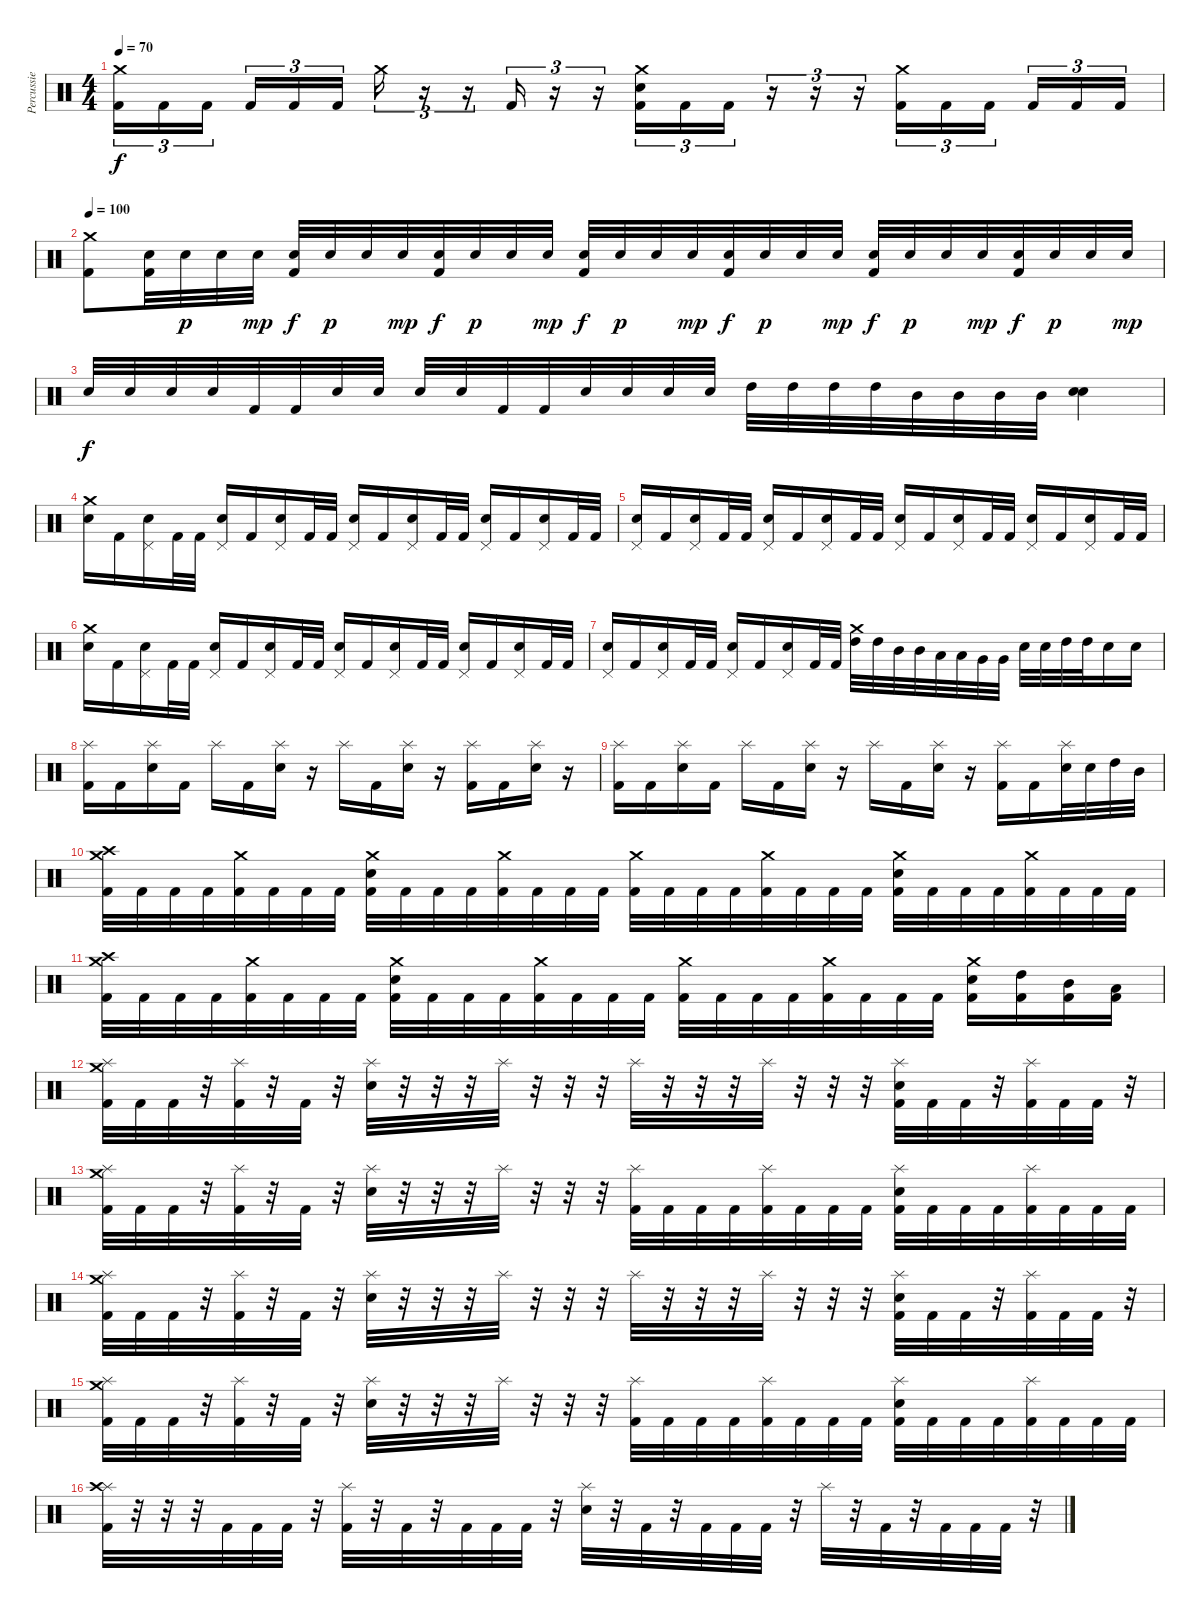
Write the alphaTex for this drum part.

\track ("Percussie" "Percussie") {instrument percussion}
\staff {score}
\articulation defaults
\ts (4 4)
\tempo 70
\clef neutral
\ks c
("Crash medium (hit)" "Kick (hit) 2").16{tu (3 2) dy f} "Kick (hit) 2".16{tu (3 2)} "Kick (hit) 2".16{tu (3 2) beam splitsecondary} "Kick (hit) 2".16{tu (3 2)} "Kick (hit) 2".16{tu (3 2)} "Kick (hit) 2".16{tu (3 2)} "Crash medium (hit)".16{tu (3 2)} r.16{tu (3 2)} r.16{tu (3 2)} "Kick (hit) 2".16{tu (3 2)} r.16{tu (3 2)} r.16{tu (3 2)} ("Crash medium (hit)" "Electric Snare (hit)" "Kick (hit) 2").16{tu (3 2)} "Kick (hit) 2".16{tu (3 2)} "Kick (hit) 2".16{tu (3 2)} r.16{tu (3 2)} r.16{tu (3 2)} r.16{tu (3 2)} ("Crash medium (hit)" "Kick (hit) 2").16{tu (3 2)} "Kick (hit) 2".16{tu (3 2)} "Kick (hit) 2".16{tu (3 2) beam splitsecondary} "Kick (hit) 2".16{tu (3 2)} "Kick (hit) 2".16{tu (3 2)} "Kick (hit) 2".16{tu (3 2)} |
\tempo 100
("Crash medium (hit)" "Kick (hit) 2").8 ("Electric Snare (hit)" "Kick (hit) 2").32 "Electric Snare (hit)".32{dy p} "Electric Snare (hit)".32 "Electric Snare (hit)".32{dy mp} ("Electric Snare (hit)" "Kick (hit) 2").32{dy f} "Electric Snare (hit)".32{dy p} "Electric Snare (hit)".32 "Electric Snare (hit)".32{dy mp} ("Electric Snare (hit)" "Kick (hit) 2").32{dy f} "Electric Snare (hit)".32{dy p} "Electric Snare (hit)".32 "Electric Snare (hit)".32{dy mp} ("Electric Snare (hit)" "Kick (hit) 2").32{dy f} "Electric Snare (hit)".32{dy p} "Electric Snare (hit)".32 "Electric Snare (hit)".32{dy mp} ("Electric Snare (hit)" "Kick (hit) 2").32{dy f} "Electric Snare (hit)".32{dy p} "Electric Snare (hit)".32 "Electric Snare (hit)".32{dy mp} ("Electric Snare (hit)" "Kick (hit) 2").32{dy f} "Electric Snare (hit)".32{dy p} "Electric Snare (hit)".32 "Electric Snare (hit)".32{dy mp} ("Electric Snare (hit)" "Kick (hit) 2").32{dy f} "Electric Snare (hit)".32{dy p} "Electric Snare (hit)".32 "Electric Snare (hit)".32{dy mp} |
"Electric Snare (hit)".32{dy f} "Electric Snare (hit)".32 "Electric Snare (hit)".32 "Electric Snare (hit)".32 "Kick (hit) 2".32 "Kick (hit) 2".32 "Electric Snare (hit)".32 "Electric Snare (hit)".32 "Electric Snare (hit)".32 "Electric Snare (hit)".32 "Kick (hit) 2".32 "Kick (hit) 2".32 "Electric Snare (hit)".32 "Electric Snare (hit)".32 "Electric Snare (hit)".32 "Electric Snare (hit)".32 "High Tom (hit)".32 "High Tom (hit)".32 "High Tom (hit)".32 "High Tom (hit)".32 "Mid Tom (hit)".32 "Mid Tom (hit)".32 "Mid Tom (hit)".32 "Mid Tom (hit)".32 ("Electric Snare (hit)" "Electric Snare (hit)").4{bd 60} |
("Crash medium (hit)" "Electric Snare (hit)").16 "Kick (hit) 2".16 ("Pedal Hi-Hat (hit)" "Electric Snare (hit)").16 "Kick (hit) 2".32 "Kick (hit) 2".32 ("Pedal Hi-Hat (hit)" "Electric Snare (hit)").16 "Kick (hit) 2".16 ("Pedal Hi-Hat (hit)" "Electric Snare (hit)").16 "Kick (hit) 2".32 "Kick (hit) 2".32 ("Pedal Hi-Hat (hit)" "Electric Snare (hit)").16 "Kick (hit) 2".16 ("Pedal Hi-Hat (hit)" "Electric Snare (hit)").16 "Kick (hit) 2".32 "Kick (hit) 2".32 ("Pedal Hi-Hat (hit)" "Electric Snare (hit)").16 "Kick (hit) 2".16 ("Pedal Hi-Hat (hit)" "Electric Snare (hit)").16 "Kick (hit) 2".32 "Kick (hit) 2".32 |
("Pedal Hi-Hat (hit)" "Electric Snare (hit)").16 "Kick (hit) 2".16 ("Pedal Hi-Hat (hit)" "Electric Snare (hit)").16 "Kick (hit) 2".32 "Kick (hit) 2".32 ("Pedal Hi-Hat (hit)" "Electric Snare (hit)").16 "Kick (hit) 2".16 ("Pedal Hi-Hat (hit)" "Electric Snare (hit)").16 "Kick (hit) 2".32 "Kick (hit) 2".32 ("Pedal Hi-Hat (hit)" "Electric Snare (hit)").16 "Kick (hit) 2".16 ("Pedal Hi-Hat (hit)" "Electric Snare (hit)").16 "Kick (hit) 2".32 "Kick (hit) 2".32 ("Pedal Hi-Hat (hit)" "Electric Snare (hit)").16 "Kick (hit) 2".16 ("Pedal Hi-Hat (hit)" "Electric Snare (hit)").16 "Kick (hit) 2".32 "Kick (hit) 2".32 |
("Crash medium (hit)" "Electric Snare (hit)").16 "Kick (hit) 2".16 ("Pedal Hi-Hat (hit)" "Electric Snare (hit)").16 "Kick (hit) 2".32 "Kick (hit) 2".32 ("Pedal Hi-Hat (hit)" "Electric Snare (hit)").16 "Kick (hit) 2".16 ("Pedal Hi-Hat (hit)" "Electric Snare (hit)").16 "Kick (hit) 2".32 "Kick (hit) 2".32 ("Pedal Hi-Hat (hit)" "Electric Snare (hit)").16 "Kick (hit) 2".16 ("Pedal Hi-Hat (hit)" "Electric Snare (hit)").16 "Kick (hit) 2".32 "Kick (hit) 2".32 ("Pedal Hi-Hat (hit)" "Electric Snare (hit)").16 "Kick (hit) 2".16 ("Pedal Hi-Hat (hit)" "Electric Snare (hit)").16 "Kick (hit) 2".32 "Kick (hit) 2".32 |
("Pedal Hi-Hat (hit)" "Electric Snare (hit)").16 "Kick (hit) 2".16 ("Pedal Hi-Hat (hit)" "Electric Snare (hit)").16 "Kick (hit) 2".32 "Kick (hit) 2".32 ("Pedal Hi-Hat (hit)" "Electric Snare (hit)").16 "Kick (hit) 2".16 ("Pedal Hi-Hat (hit)" "Electric Snare (hit)").16 "Kick (hit) 2".32 "Kick (hit) 2".32 ("Crash medium (hit)" "High Tom (hit)").32 "High Tom (hit)".32 "Mid Tom (hit)".32 "Mid Tom (hit)".32 "Low Tom (hit)".32 "Low Tom (hit)".32 "Very Low Tom (hit)".32 "Very Low Tom (hit)".32 "Electric Snare (hit)".32 "Electric Snare (hit)".32 "High Tom (hit)".32 "High Tom (hit)".32 "Electric Snare (hit)".16 "Electric Snare (hit)".16 |
("Splash (hit)" "Kick (hit) 2").16 "Kick (hit) 2".16 ("Splash (hit)" "Electric Snare (hit)").16 "Kick (hit) 2".16 "Splash (hit)".16 "Kick (hit) 2".16 ("Splash (hit)" "Electric Snare (hit)").16 r.16 "Splash (hit)".16 "Kick (hit) 2".16 ("Splash (hit)" "Electric Snare (hit)").16 r.16 ("Splash (hit)" "Kick (hit) 2").16 "Kick (hit) 2".16 ("Splash (hit)" "Electric Snare (hit)").16 r.16 |
("Splash (hit)" "Kick (hit) 2").16 "Kick (hit) 2".16 ("Splash (hit)" "Electric Snare (hit)").16 "Kick (hit) 2".16 "Splash (hit)".16 "Kick (hit) 2".16 ("Splash (hit)" "Electric Snare (hit)").16 r.16 "Splash (hit)".16 "Kick (hit) 2".16 ("Splash (hit)" "Electric Snare (hit)").16 r.16 ("Splash (hit)" "Kick (hit) 2").16 "Kick (hit) 2".16 ("Splash (hit)" "Electric Snare (hit)").32 "Electric Snare (hit)".32 "High Tom (hit)".32 "Mid Tom (hit)".32 |
("Crash medium (hit)" "Crash high (hit)" "Kick (hit) 2").32 "Kick (hit) 2".32 "Kick (hit) 2".32 "Kick (hit) 2".32 ("Crash medium (hit)" "Kick (hit) 2").32 "Kick (hit) 2".32 "Kick (hit) 2".32 "Kick (hit) 2".32 ("Crash medium (hit)" "Electric Snare (hit)" "Kick (hit) 2").32 "Kick (hit) 2".32 "Kick (hit) 2".32 "Kick (hit) 2".32 ("Crash medium (hit)" "Kick (hit) 2").32 "Kick (hit) 2".32 "Kick (hit) 2".32 "Kick (hit) 2".32 ("Crash medium (hit)" "Kick (hit) 2").32 "Kick (hit) 2".32 "Kick (hit) 2".32 "Kick (hit) 2".32 ("Crash medium (hit)" "Kick (hit) 2").32 "Kick (hit) 2".32 "Kick (hit) 2".32 "Kick (hit) 2".32 ("Crash medium (hit)" "Electric Snare (hit)" "Kick (hit) 2").32 "Kick (hit) 2".32 "Kick (hit) 2".32 "Kick (hit) 2".32 ("Crash medium (hit)" "Kick (hit) 2").32 "Kick (hit) 2".32 "Kick (hit) 2".32 "Kick (hit) 2".32 |
("Crash medium (hit)" "Crash high (hit)" "Kick (hit) 2").32 "Kick (hit) 2".32 "Kick (hit) 2".32 "Kick (hit) 2".32 ("Crash medium (hit)" "Kick (hit) 2").32 "Kick (hit) 2".32 "Kick (hit) 2".32 "Kick (hit) 2".32 ("Crash medium (hit)" "Electric Snare (hit)" "Kick (hit) 2").32 "Kick (hit) 2".32 "Kick (hit) 2".32 "Kick (hit) 2".32 ("Crash medium (hit)" "Kick (hit) 2").32 "Kick (hit) 2".32 "Kick (hit) 2".32 "Kick (hit) 2".32 ("Crash medium (hit)" "Kick (hit) 2").32 "Kick (hit) 2".32 "Kick (hit) 2".32 "Kick (hit) 2".32 ("Crash medium (hit)" "Kick (hit) 2").32 "Kick (hit) 2".32 "Kick (hit) 2".32 "Kick (hit) 2".32 ("Crash medium (hit)" "Electric Snare (hit)" "Kick (hit) 2").16 ("High Tom (hit)" "Kick (hit) 2").16 ("Mid Tom (hit)" "Kick (hit) 2").16 ("Low Tom (hit)" "Kick (hit) 2").16 |
("Splash (hit)" "Crash medium (hit)" "Kick (hit) 2").32 "Kick (hit) 2".32 "Kick (hit) 2".32 r.32 ("Splash (hit)" "Kick (hit) 2").32 r.32 "Kick (hit) 2".32 r.32 ("Splash (hit)" "Electric Snare (hit)").32 r.32 r.32 r.32 "Splash (hit)".32 r.32 r.32 r.32 "Splash (hit)".32 r.32 r.32 r.32 "Splash (hit)".32 r.32 r.32 r.32 ("Splash (hit)" "Electric Snare (hit)" "Kick (hit) 2").32 "Kick (hit) 2".32 "Kick (hit) 2".32 r.32 ("Splash (hit)" "Kick (hit) 2").32 "Kick (hit) 2".32 "Kick (hit) 2".32 r.32 |
("Splash (hit)" "Crash medium (hit)" "Kick (hit) 2").32 "Kick (hit) 2".32 "Kick (hit) 2".32 r.32 ("Splash (hit)" "Kick (hit) 2").32 r.32 "Kick (hit) 2".32 r.32 ("Splash (hit)" "Electric Snare (hit)").32 r.32 r.32 r.32 "Splash (hit)".32 r.32 r.32 r.32 ("Splash (hit)" "Kick (hit) 2").32 "Kick (hit) 2".32 "Kick (hit) 2".32 "Kick (hit) 2".32 ("Splash (hit)" "Kick (hit) 2").32 "Kick (hit) 2".32 "Kick (hit) 2".32 "Kick (hit) 2".32 ("Splash (hit)" "Electric Snare (hit)" "Kick (hit) 2").32 "Kick (hit) 2".32 "Kick (hit) 2".32 "Kick (hit) 2".32 ("Splash (hit)" "Kick (hit) 2").32 "Kick (hit) 2".32 "Kick (hit) 2".32 "Kick (hit) 2".32 |
("Splash (hit)" "Crash medium (hit)" "Kick (hit) 2").32 "Kick (hit) 2".32 "Kick (hit) 2".32 r.32 ("Splash (hit)" "Kick (hit) 2").32 r.32 "Kick (hit) 2".32 r.32 ("Splash (hit)" "Electric Snare (hit)").32 r.32 r.32 r.32 "Splash (hit)".32 r.32 r.32 r.32 "Splash (hit)".32 r.32 r.32 r.32 "Splash (hit)".32 r.32 r.32 r.32 ("Splash (hit)" "Electric Snare (hit)" "Kick (hit) 2").32 "Kick (hit) 2".32 "Kick (hit) 2".32 r.32 ("Splash (hit)" "Kick (hit) 2").32 "Kick (hit) 2".32 "Kick (hit) 2".32 r.32 |
("Splash (hit)" "Crash medium (hit)" "Kick (hit) 2").32 "Kick (hit) 2".32 "Kick (hit) 2".32 r.32 ("Splash (hit)" "Kick (hit) 2").32 r.32 "Kick (hit) 2".32 r.32 ("Splash (hit)" "Electric Snare (hit)").32 r.32 r.32 r.32 "Splash (hit)".32 r.32 r.32 r.32 ("Splash (hit)" "Kick (hit) 2").32 "Kick (hit) 2".32 "Kick (hit) 2".32 "Kick (hit) 2".32 ("Splash (hit)" "Kick (hit) 2").32 "Kick (hit) 2".32 "Kick (hit) 2".32 "Kick (hit) 2".32 ("Splash (hit)" "Electric Snare (hit)" "Kick (hit) 2").32 "Kick (hit) 2".32 "Kick (hit) 2".32 "Kick (hit) 2".32 ("Splash (hit)" "Kick (hit) 2").32 "Kick (hit) 2".32 "Kick (hit) 2".32 "Kick (hit) 2".32 |
("Splash (hit)" "Crash high (hit)" "Kick (hit) 2").32 r.32 r.32 r.32 "Kick (hit) 2".32 "Kick (hit) 2".32 "Kick (hit) 2".32 r.32 ("Splash (hit)" "Kick (hit) 2").32 r.32 "Kick (hit) 2".32 r.32 "Kick (hit) 2".32 "Kick (hit) 2".32 "Kick (hit) 2".32 r.32 ("Splash (hit)" "Electric Snare (hit)").32 r.32 "Kick (hit) 2".32 r.32 "Kick (hit) 2".32 "Kick (hit) 2".32 "Kick (hit) 2".32 r.32 "Splash (hit)".32 r.32 "Kick (hit) 2".32 r.32 "Kick (hit) 2".32 "Kick (hit) 2".32 "Kick (hit) 2".32 r.32
